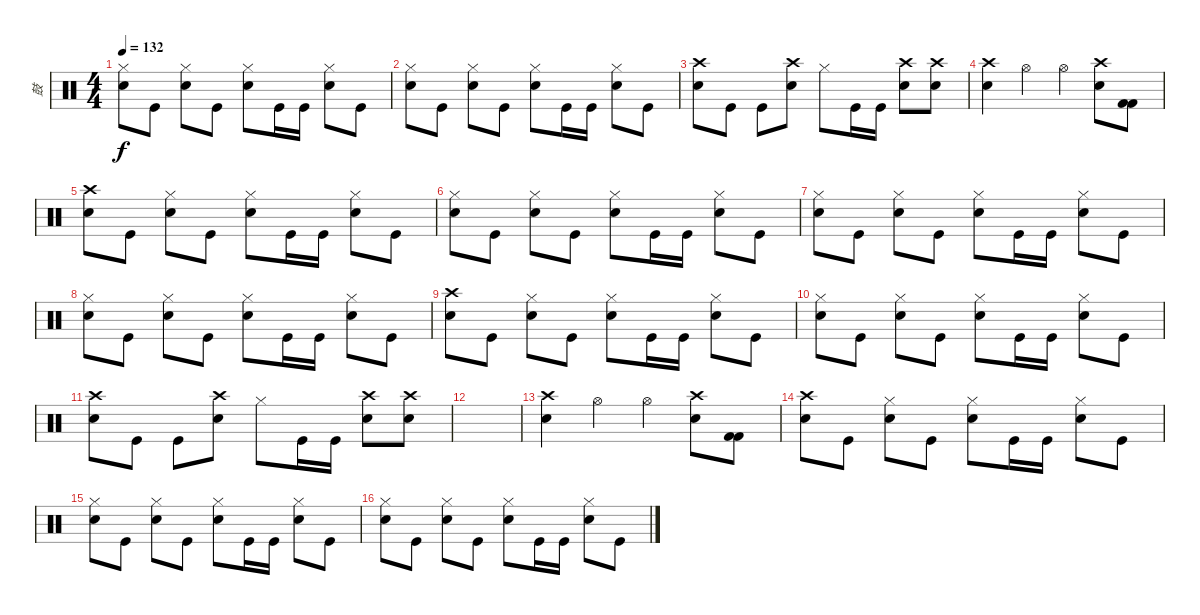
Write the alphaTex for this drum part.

\track ("鼓" "鼓") {instrument percussion}
\staff {score}
\articulation defaults
\ts (4 4)
\tempo 132
\clef neutral
\ks c
("Hi-Hat (closed)" "Electric Snare (hit)").8{dy f} "Kick (hit)".8 ("Hi-Hat (closed)" "Electric Snare (hit)").8 "Kick (hit)".8 ("Hi-Hat (closed)" "Electric Snare (hit)").8 "Kick (hit)".16 "Kick (hit)".16 ("Hi-Hat (closed)" "Electric Snare (hit)").8 "Kick (hit)".8 |
("Hi-Hat (closed)" "Electric Snare (hit)").8 "Kick (hit)".8 ("Hi-Hat (closed)" "Electric Snare (hit)").8 "Kick (hit)".8 ("Hi-Hat (closed)" "Electric Snare (hit)").8 "Kick (hit)".16 "Kick (hit)".16 ("Hi-Hat (closed)" "Electric Snare (hit)").8 "Kick (hit)".8 |
("Crash high (hit)" "Electric Snare (hit)").8 "Kick (hit)".8 "Kick (hit)".8 ("Crash high (hit)" "Electric Snare (hit)").8 "Hi-Hat (closed)".8 "Kick (hit)".16 "Kick (hit)".16 ("Crash high (hit)" "Electric Snare (hit)").8 ("Crash high (hit)" "Electric Snare (hit)").8 |
("Crash high (hit)" "Electric Snare (hit)").4 "Hi-Hat (open)".4 "Hi-Hat (open)".4 ("Crash high (hit)" "Electric Snare (hit)").8 ("Kick (hit) 2" "Kick (hit) 2").8 |
("Crash high (hit)" "Electric Snare (hit)").8 "Kick (hit)".8 ("Hi-Hat (closed)" "Electric Snare (hit)").8 "Kick (hit)".8 ("Hi-Hat (closed)" "Electric Snare (hit)").8 "Kick (hit)".16 "Kick (hit)".16 ("Hi-Hat (closed)" "Electric Snare (hit)").8 "Kick (hit)".8 |
("Hi-Hat (closed)" "Electric Snare (hit)").8 "Kick (hit)".8 ("Hi-Hat (closed)" "Electric Snare (hit)").8 "Kick (hit)".8 ("Hi-Hat (closed)" "Electric Snare (hit)").8 "Kick (hit)".16 "Kick (hit)".16 ("Hi-Hat (closed)" "Electric Snare (hit)").8 "Kick (hit)".8 |
("Hi-Hat (closed)" "Electric Snare (hit)").8 "Kick (hit)".8 ("Hi-Hat (closed)" "Electric Snare (hit)").8 "Kick (hit)".8 ("Hi-Hat (closed)" "Electric Snare (hit)").8 "Kick (hit)".16 "Kick (hit)".16 ("Hi-Hat (closed)" "Electric Snare (hit)").8 "Kick (hit)".8 |
("Hi-Hat (closed)" "Electric Snare (hit)").8 "Kick (hit)".8 ("Hi-Hat (closed)" "Electric Snare (hit)").8 "Kick (hit)".8 ("Hi-Hat (closed)" "Electric Snare (hit)").8 "Kick (hit)".16 "Kick (hit)".16 ("Hi-Hat (closed)" "Electric Snare (hit)").8 "Kick (hit)".8 |
("Crash high (hit)" "Electric Snare (hit)").8 "Kick (hit)".8 ("Hi-Hat (closed)" "Electric Snare (hit)").8 "Kick (hit)".8 ("Hi-Hat (closed)" "Electric Snare (hit)").8 "Kick (hit)".16 "Kick (hit)".16 ("Hi-Hat (closed)" "Electric Snare (hit)").8 "Kick (hit)".8 |
("Hi-Hat (closed)" "Electric Snare (hit)").8 "Kick (hit)".8 ("Hi-Hat (closed)" "Electric Snare (hit)").8 "Kick (hit)".8 ("Hi-Hat (closed)" "Electric Snare (hit)").8 "Kick (hit)".16 "Kick (hit)".16 ("Hi-Hat (closed)" "Electric Snare (hit)").8 "Kick (hit)".8 |
("Crash high (hit)" "Electric Snare (hit)").8 "Kick (hit)".8 "Kick (hit)".8 ("Crash high (hit)" "Electric Snare (hit)").8 "Hi-Hat (closed)".8 "Kick (hit)".16 "Kick (hit)".16 ("Crash high (hit)" "Electric Snare (hit)").8 ("Crash high (hit)" "Electric Snare (hit)").8 |
|
("Crash high (hit)" "Electric Snare (hit)").4 "Hi-Hat (open)".4 "Hi-Hat (open)".4 ("Crash high (hit)" "Electric Snare (hit)").8 ("Kick (hit) 2" "Kick (hit) 2").8 |
("Crash high (hit)" "Electric Snare (hit)").8 "Kick (hit)".8 ("Hi-Hat (closed)" "Electric Snare (hit)").8 "Kick (hit)".8 ("Hi-Hat (closed)" "Electric Snare (hit)").8 "Kick (hit)".16 "Kick (hit)".16 ("Hi-Hat (closed)" "Electric Snare (hit)").8 "Kick (hit)".8 |
("Hi-Hat (closed)" "Electric Snare (hit)").8 "Kick (hit)".8 ("Hi-Hat (closed)" "Electric Snare (hit)").8 "Kick (hit)".8 ("Hi-Hat (closed)" "Electric Snare (hit)").8 "Kick (hit)".16 "Kick (hit)".16 ("Hi-Hat (closed)" "Electric Snare (hit)").8 "Kick (hit)".8 |
("Hi-Hat (closed)" "Electric Snare (hit)").8 "Kick (hit)".8 ("Hi-Hat (closed)" "Electric Snare (hit)").8 "Kick (hit)".8 ("Hi-Hat (closed)" "Electric Snare (hit)").8 "Kick (hit)".16 "Kick (hit)".16 ("Hi-Hat (closed)" "Electric Snare (hit)").8 "Kick (hit)".8
